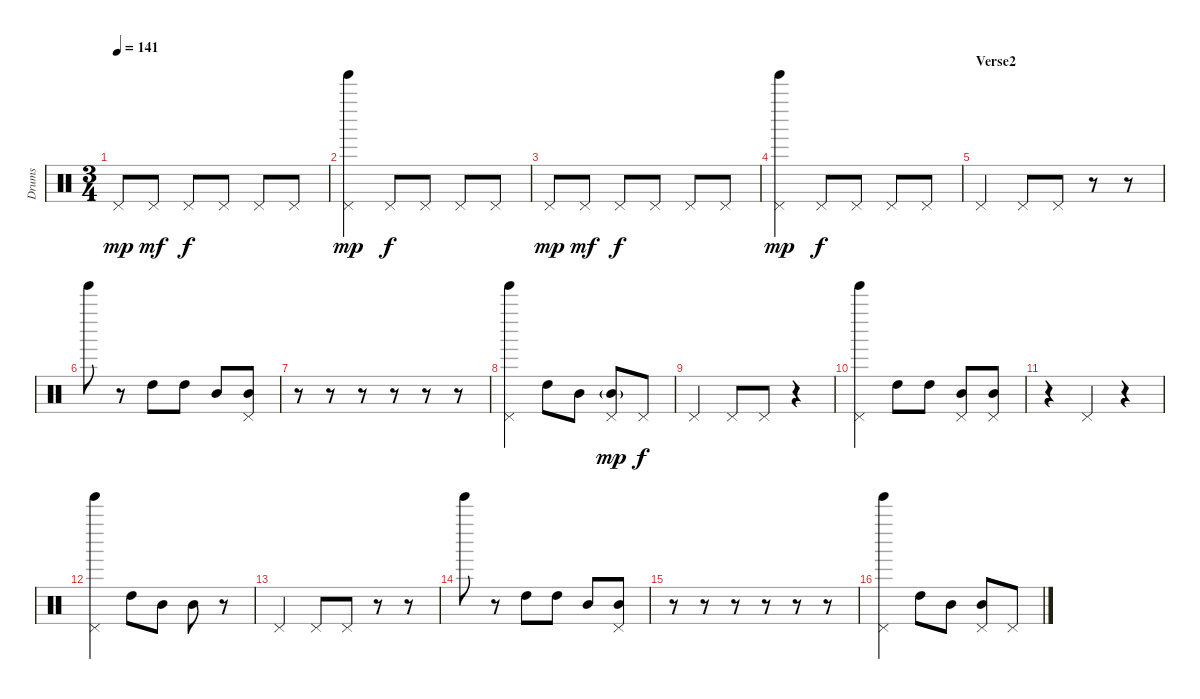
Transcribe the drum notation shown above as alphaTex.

\track ("Drums" "Drums") {instrument percussion}
\staff {score}
\articulation defaults
\ts (3 4)
\tempo 141
\clef neutral
\ks c "Pedal Hi-Hat (hit)".8{dy mp} "Pedal Hi-Hat (hit)".8{dy mf} "Pedal Hi-Hat (hit)".8{dy f} "Pedal Hi-Hat (hit)".8 "Pedal Hi-Hat (hit)".8 "Pedal Hi-Hat (hit)".8
|
("Pedal Hi-Hat (hit)" "Tinkle Bell (hit)").4{dy mp} "Pedal Hi-Hat (hit)".8{dy f} "Pedal Hi-Hat (hit)".8 "Pedal Hi-Hat (hit)".8 "Pedal Hi-Hat (hit)".8 |
"Pedal Hi-Hat (hit)".8{dy mp} "Pedal Hi-Hat (hit)".8{dy mf} "Pedal Hi-Hat (hit)".8{dy f} "Pedal Hi-Hat (hit)".8 "Pedal Hi-Hat (hit)".8 "Pedal Hi-Hat (hit)".8 |
("Pedal Hi-Hat (hit)" "Tinkle Bell (hit)").4{dy mp} "Pedal Hi-Hat (hit)".8{dy f} "Pedal Hi-Hat (hit)".8 "Pedal Hi-Hat (hit)".8 "Pedal Hi-Hat (hit)".8 |
\section ("" "Verse2")
"Pedal Hi-Hat (hit)".4 "Pedal Hi-Hat (hit)".8 "Pedal Hi-Hat (hit)".8 r.8 r.8 |
"Tinkle Bell (hit)".8 r.8 "High Tom (hit)".8 "High Tom (hit)".8 "Mid Tom (hit)".8 ("Pedal Hi-Hat (hit)" "Mid Tom (hit)").8 |
r.8 r.8 r.8 r.8 r.8 r.8 |
("Pedal Hi-Hat (hit)" "Tinkle Bell (hit)").4 "High Tom (hit)".8 "Mid Tom (hit)".8 ("Pedal Hi-Hat (hit)" "Mid Tom (hit)"{g}).8{dy mp} "Pedal Hi-Hat (hit)".8{dy f} |
"Pedal Hi-Hat (hit)".4 "Pedal Hi-Hat (hit)".8 "Pedal Hi-Hat (hit)".8 r.4 |
("Pedal Hi-Hat (hit)" "Tinkle Bell (hit)").4 "High Tom (hit)".8 "High Tom (hit)".8 ("Pedal Hi-Hat (hit)" "Mid Tom (hit)").8 ("Pedal Hi-Hat (hit)" "Mid Tom (hit)").8 |
r.4 "Pedal Hi-Hat (hit)".4 r.4 |
("Pedal Hi-Hat (hit)" "Tinkle Bell (hit)").4 "High Tom (hit)".8 "Mid Tom (hit)".8 "Mid Tom (hit)".8 r.8 |
"Pedal Hi-Hat (hit)".4 "Pedal Hi-Hat (hit)".8 "Pedal Hi-Hat (hit)".8 r.8 r.8 |
"Tinkle Bell (hit)".8 r.8 "High Tom (hit)".8 "High Tom (hit)".8 "Mid Tom (hit)".8 ("Pedal Hi-Hat (hit)" "Mid Tom (hit)").8 |
r.8 r.8 r.8 r.8 r.8 r.8 |
("Pedal Hi-Hat (hit)" "Tinkle Bell (hit)").4 "High Tom (hit)".8 "Mid Tom (hit)".8 ("Pedal Hi-Hat (hit)" "Mid Tom (hit)").8 "Pedal Hi-Hat (hit)".8
